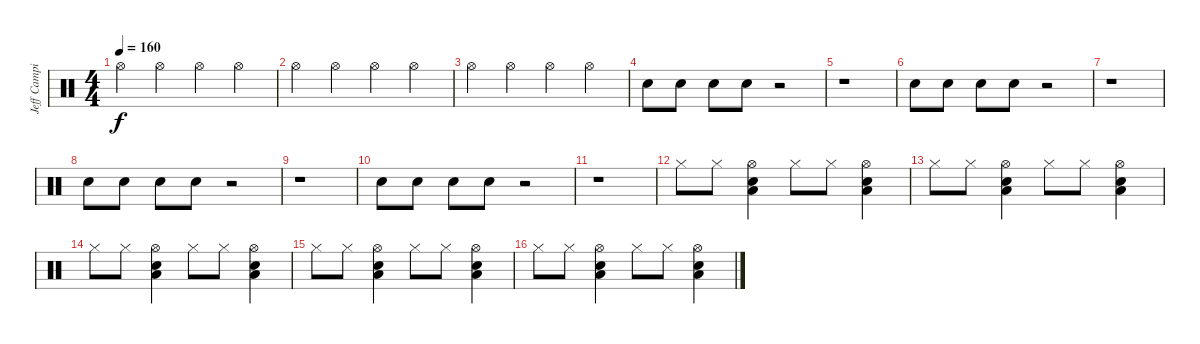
\track ("Jeff Campitelli" "Jeff Campi") {instrument percussion}
\staff {score}
\articulation defaults
\ts (4 4)
\tempo 160
\clef neutral
\ks c "Hi-Hat (open)".4{dy f} "Hi-Hat (open)".4 "Hi-Hat (open)".4 "Hi-Hat (open)".4
|
"Hi-Hat (open)".4 "Hi-Hat (open)".4 "Hi-Hat (open)".4 "Hi-Hat (open)".4 |
"Hi-Hat (open)".4 "Hi-Hat (open)".4 "Hi-Hat (open)".4 "Hi-Hat (open)".4 |
"Snare (hit) 2".8 "Snare (hit) 2".8 "Snare (hit) 2".8 "Snare (hit) 2".8 r.2 |
r.1 |
"Snare (hit) 2".8 "Snare (hit) 2".8 "Snare (hit) 2".8 "Snare (hit) 2".8 r.2 |
r.1 |
"Snare (hit) 2".8 "Snare (hit) 2".8 "Snare (hit) 2".8 "Snare (hit) 2".8 r.2 |
r.1 |
"Snare (hit) 2".8 "Snare (hit) 2".8 "Snare (hit) 2".8 "Snare (hit) 2".8 r.2 |
r.1 |
"Hi-Hat (closed)".8 "Hi-Hat (closed)".8 ("Low Floor Tom (hit)" "Snare (hit) 2" "Hi-Hat (open)").4 "Hi-Hat (closed)".8 "Hi-Hat (closed)".8 ("Low Floor Tom (hit)" "Snare (hit) 2" "Hi-Hat (open)").4 |
"Hi-Hat (closed)".8 "Hi-Hat (closed)".8 ("Low Floor Tom (hit)" "Snare (hit) 2" "Hi-Hat (open)").4 "Hi-Hat (closed)".8 "Hi-Hat (closed)".8 ("Low Floor Tom (hit)" "Snare (hit) 2" "Hi-Hat (open)").4 |
"Hi-Hat (closed)".8 "Hi-Hat (closed)".8 ("Low Floor Tom (hit)" "Snare (hit) 2" "Hi-Hat (open)").4 "Hi-Hat (closed)".8 "Hi-Hat (closed)".8 ("Low Floor Tom (hit)" "Snare (hit) 2" "Hi-Hat (open)").4 |
"Hi-Hat (closed)".8 "Hi-Hat (closed)".8 ("Low Floor Tom (hit)" "Snare (hit) 2" "Hi-Hat (open)").4 "Hi-Hat (closed)".8 "Hi-Hat (closed)".8 ("Low Floor Tom (hit)" "Snare (hit) 2" "Hi-Hat (open)").4 |
"Hi-Hat (closed)".8 "Hi-Hat (closed)".8 ("Low Floor Tom (hit)" "Snare (hit) 2" "Hi-Hat (open)").4 "Hi-Hat (closed)".8 "Hi-Hat (closed)".8 ("Low Floor Tom (hit)" "Snare (hit) 2" "Hi-Hat (open)").4
